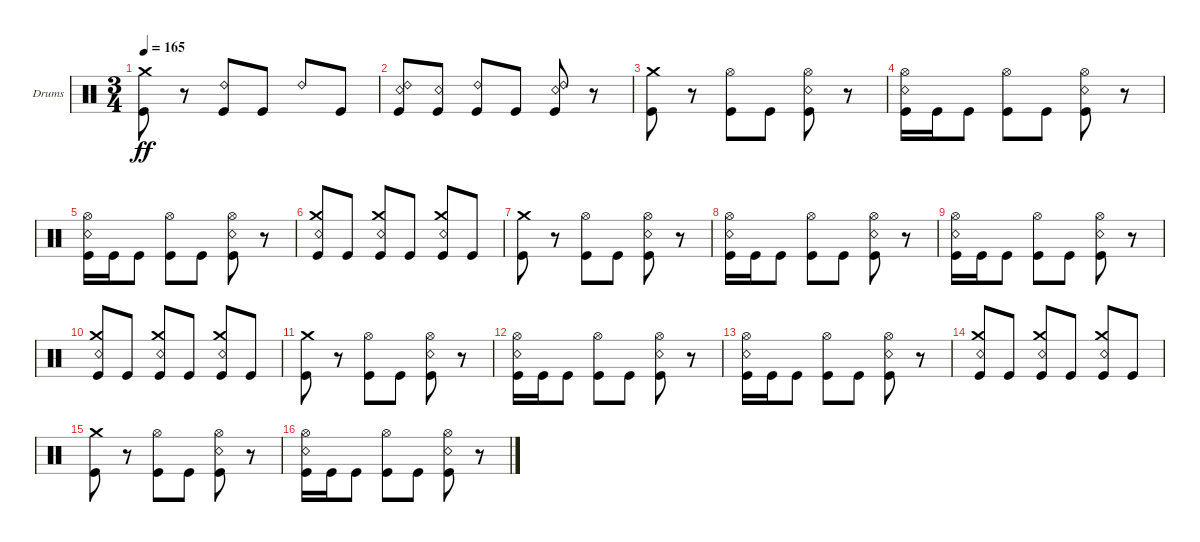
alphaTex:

\bracketExtendMode groupsimilarinstruments
\firstSystemTrackNameOrientation horizontal
\otherSystemsTrackNameOrientation horizontal
\track ("Kaleb - Drums" "Drums") {instrument percussion}
\staff {score}
\articulation defaults
\ts (3 4)
\tempo 165
\clef neutral
\ks c
("Kick (hit)" "Crash medium (hit)").8{dy ff} r.8 ("Kick (hit)" "Ride (bell) 2").8 "Kick (hit)".8 "Ride (bell) 2".8 "Kick (hit)".8 |
("Kick (hit)" "Ride (bell) 2" "Snare (rim shot)").8 ("Kick (hit)" "Snare (rim shot)").8 ("Kick (hit)" "Ride (bell) 2").8 "Kick (hit)".8 ("Kick (hit)" "Ride (bell) 2" "Snare (rim shot)").8 r.8 |
("Kick (hit)" "Crash medium (hit)").8 r.8 ("Kick (hit)" "Hi-Hat (open)").8 "Kick (hit)".8 ("Kick (hit)" "Hi-Hat (open)" "Snare (rim shot)").8 r.8 |
("Kick (hit)" "Hi-Hat (open)" "Snare (rim shot)").16 "Kick (hit)".16 "Kick (hit)".8 ("Kick (hit)" "Hi-Hat (open)").8 "Kick (hit)".8 ("Kick (hit)" "Hi-Hat (open)" "Snare (rim shot)").8 r.8 |
("Kick (hit)" "Hi-Hat (open)" "Snare (rim shot)").16 "Kick (hit)".16 "Kick (hit)".8 ("Kick (hit)" "Hi-Hat (open)").8 "Kick (hit)".8 ("Kick (hit)" "Hi-Hat (open)" "Snare (rim shot)").8 r.8 |
("Kick (hit)" "Crash medium (hit)" "Snare (rim shot)").8 "Kick (hit)".8 ("Kick (hit)" "Crash medium (hit)" "Snare (rim shot)").8 "Kick (hit)".8 ("Kick (hit)" "Crash medium (hit)" "Snare (rim shot)").8 "Kick (hit)".8 |
("Kick (hit)" "Crash medium (hit)").8 r.8 ("Kick (hit)" "Hi-Hat (open)").8 "Kick (hit)".8 ("Kick (hit)" "Hi-Hat (open)" "Snare (rim shot)").8 r.8 |
("Kick (hit)" "Hi-Hat (open)" "Snare (rim shot)").16 "Kick (hit)".16 "Kick (hit)".8 ("Kick (hit)" "Hi-Hat (open)").8 "Kick (hit)".8 ("Kick (hit)" "Hi-Hat (open)" "Snare (rim shot)").8 r.8 |
("Kick (hit)" "Hi-Hat (open)" "Snare (rim shot)").16 "Kick (hit)".16 "Kick (hit)".8 ("Kick (hit)" "Hi-Hat (open)").8 "Kick (hit)".8 ("Kick (hit)" "Hi-Hat (open)" "Snare (rim shot)").8 r.8 |
("Kick (hit)" "Crash medium (hit)" "Snare (rim shot)").8 "Kick (hit)".8 ("Kick (hit)" "Crash medium (hit)" "Snare (rim shot)").8 "Kick (hit)".8 ("Kick (hit)" "Crash medium (hit)" "Snare (rim shot)").8 "Kick (hit)".8 |
("Kick (hit)" "Crash medium (hit)").8 r.8 ("Kick (hit)" "Hi-Hat (open)").8 "Kick (hit)".8 ("Kick (hit)" "Hi-Hat (open)" "Snare (rim shot)").8 r.8 |
("Kick (hit)" "Hi-Hat (open)" "Snare (rim shot)").16 "Kick (hit)".16 "Kick (hit)".8 ("Kick (hit)" "Hi-Hat (open)").8 "Kick (hit)".8 ("Kick (hit)" "Hi-Hat (open)" "Snare (rim shot)").8 r.8 |
("Kick (hit)" "Hi-Hat (open)" "Snare (rim shot)").16 "Kick (hit)".16 "Kick (hit)".8 ("Kick (hit)" "Hi-Hat (open)").8 "Kick (hit)".8 ("Kick (hit)" "Hi-Hat (open)" "Snare (rim shot)").8 r.8 |
("Kick (hit)" "Crash medium (hit)" "Snare (rim shot)").8 "Kick (hit)".8 ("Kick (hit)" "Crash medium (hit)" "Snare (rim shot)").8 "Kick (hit)".8 ("Kick (hit)" "Crash medium (hit)" "Snare (rim shot)").8 "Kick (hit)".8 |
("Kick (hit)" "Crash medium (hit)").8 r.8 ("Kick (hit)" "Hi-Hat (open)").8 "Kick (hit)".8 ("Kick (hit)" "Hi-Hat (open)" "Snare (rim shot)").8 r.8 |
("Kick (hit)" "Hi-Hat (open)" "Snare (rim shot)").16 "Kick (hit)".16 "Kick (hit)".8 ("Kick (hit)" "Hi-Hat (open)").8 "Kick (hit)".8 ("Kick (hit)" "Hi-Hat (open)" "Snare (rim shot)").8 r.8
